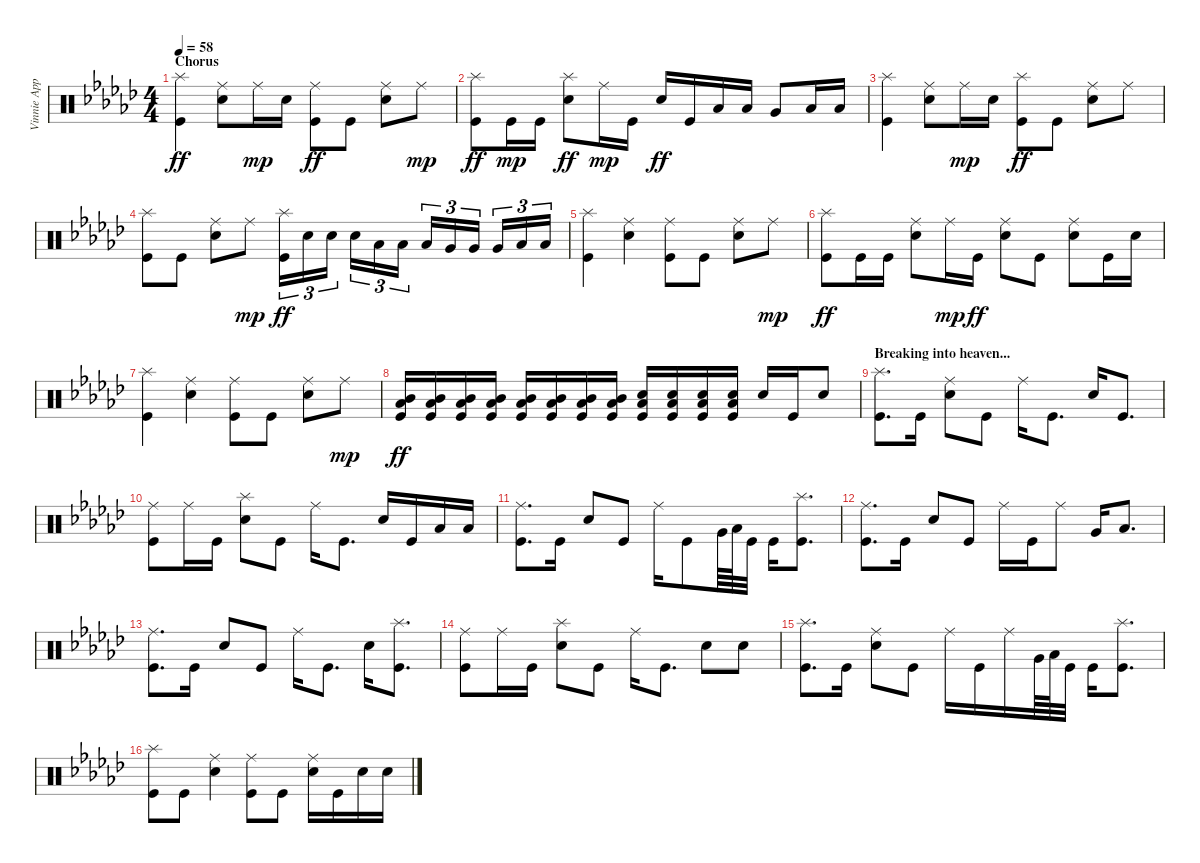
\track ("Vinnie Appice" "Vinnie App") {instrument percussion}
\staff {score}
\articulation defaults
\ts (4 4)
\section ("" "Chorus")
\tempo 58
\clef neutral
\ks ebminor
("Kick (hit)" "Splash (hit)").4{dy ff} ("Ride (middle)" "Snare (hit) 2").8 "Ride (middle)".16{dy mp} "Snare (hit) 2".16 ("Kick (hit)" "Ride (middle)").8{dy ff} "Kick (hit)".8 ("Ride (middle)" "Snare (hit) 2").8 "Ride (middle)".8{dy mp} |
("Kick (hit)" "Splash (hit)").8{dy ff} "Kick (hit)".16{dy mp} "Kick (hit)".16 ("Splash (hit)" "Snare (hit) 2").8{dy ff} "Ride (middle)".16{dy mp} "Kick (hit)".16 "Snare (hit) 2".16{dy ff} "Kick (hit)".16 "Low Tom (hit)".16 "Low Tom (hit)".16 "Very Low Tom (hit)".8 "Low Floor Tom (hit)".16 "Low Floor Tom (hit)".16 |
("Kick (hit)" "Splash (hit)").4 ("Ride (middle)" "Snare (hit) 2").8 "Ride (middle)".16{dy mp} "Snare (hit) 2".16 ("Kick (hit)" "Splash (hit)").8{dy ff} "Kick (hit)".8 ("Ride (middle)" "Snare (hit) 2").8 "Ride (middle)".8 |
("Kick (hit)" "Splash (hit)").8 "Kick (hit)".8 ("Ride (middle)" "Snare (hit) 2").8 "Ride (middle)".8{dy mp} ("Kick (hit)" "Splash (hit)").16{tu (3 2) dy ff} "Snare (hit) 2".16{tu (3 2)} "Snare (hit) 2".16{tu (3 2)} "Snare (hit) 2".16{tu (3 2)} "Low Tom (hit)".16{tu (3 2)} "Low Tom (hit)".16{tu (3 2)} "Low Tom (hit)".16{tu (3 2)} "Very Low Tom (hit)".16{tu (3 2)} "Very Low Tom (hit)".16{tu (3 2)} "Very Low Tom (hit)".16{tu (3 2)} "Low Floor Tom (hit)".16{tu (3 2)} "Low Floor Tom (hit)".16{tu (3 2)} |
("Kick (hit)" "Splash (hit)").4 ("Snare (hit) 2" "Ride (middle)").4 ("Ride (middle)" "Kick (hit)").8 "Kick (hit)".8 ("Ride (middle)" "Snare (hit) 2").8 "Ride (middle)".8{dy mp} |
("Splash (hit)" "Kick (hit)").8{dy ff} "Kick (hit)".16 "Kick (hit)".16 ("Ride (middle)" "Snare (hit) 2").8 "Ride (middle)".16{dy mp} "Kick (hit)".16{dy ff} ("Snare (hit) 2" "Ride (middle)").8 "Kick (hit)".8 ("Ride (middle)" "Snare (hit) 2").8 "Kick (hit)".16 "Snare (hit) 2".16 |
("Kick (hit)" "Splash (hit)").4 ("Snare (hit) 2" "Ride (middle)").4 ("Ride (middle)" "Kick (hit)").8 "Kick (hit)".8 ("Ride (middle)" "Snare (hit) 2").8 "Ride (middle)".8{dy mp} |
("Kick (hit)" "Low Floor Tom (hit)" "Mid Tom (hit)").16{dy ff} ("Kick (hit)" "Low Floor Tom (hit)" "Mid Tom (hit)").16 ("Kick (hit)" "Low Floor Tom (hit)" "Mid Tom (hit)").16 ("Kick (hit)" "Low Floor Tom (hit)" "Mid Tom (hit)").16 ("Kick (hit)" "Low Floor Tom (hit)" "Mid Tom (hit)").16 ("Kick (hit)" "Low Floor Tom (hit)" "Mid Tom (hit)").16 ("Kick (hit)" "Low Floor Tom (hit)" "Mid Tom (hit)").16 ("Kick (hit)" "Low Floor Tom (hit)" "Mid Tom (hit)").16 ("Kick (hit)" "Low Floor Tom (hit)" "Snare (hit) 2").16 ("Kick (hit)" "Low Floor Tom (hit)" "Snare (hit) 2").16 ("Kick (hit)" "Low Floor Tom (hit)" "Snare (hit) 2").16 ("Kick (hit)" "Low Floor Tom (hit)" "Snare (hit) 2").16 "Snare (hit) 2".16 "Kick (hit)".16 "Snare (hit) 2".8 |
\section ("" "Breaking into heaven...")
("Kick (hit)" "Splash (hit)").8{d} "Kick (hit)".16 ("Ride (middle)" "Snare (hit) 2").8 "Kick (hit)".8 "Ride (middle)".16 "Kick (hit)".8{d} "Snare (hit) 2".16 "Kick (hit)".8{d} |
("Kick (hit)" "Ride (middle)").8 "Ride (middle)".16 "Kick (hit)".16 ("Snare (hit) 2" "Splash (hit)").8 "Kick (hit)".8 "Ride (middle)".16 "Kick (hit)".8{d} "Snare (hit) 2".16 "Kick (hit)".16 "Low Tom (hit)".16 "Low Tom (hit)".16 |
("Kick (hit)" "Ride (middle)").8{d} "Kick (hit)".16 "Snare (hit) 2".8 "Kick (hit)".8 "Ride (middle)".16 "Kick (hit)".8 "Very Low Tom (hit)".64 "Low Floor Tom (hit)".64 "Kick (hit)".32 "Kick (hit)".16 ("Kick (hit)" "Splash (hit)").8{d} |
("Kick (hit)" "Ride (middle)").8{d} "Kick (hit)".16 "Snare (hit) 2".8 "Kick (hit)".8 "Ride (middle)".16 "Kick (hit)".16 "Ride (middle)".8 "Very Low Tom (hit)".16 "Low Floor Tom (hit)".8{d} |
("Kick (hit)" "Ride (middle)").8{d} "Kick (hit)".16 "Snare (hit) 2".8 "Kick (hit)".8 "Ride (middle)".16 "Kick (hit)".8{d} "Snare (hit) 2".16 ("Kick (hit)" "Splash (hit)").8{d} |
("Kick (hit)" "Ride (middle)").8 "Ride (middle)".16 "Kick (hit)".16 ("Snare (hit) 2" "Splash (hit)").8 "Kick (hit)".8 "Ride (middle)".16 "Kick (hit)".8{d} "Snare (hit) 2".8 "Snare (hit) 2".8 |
("Kick (hit)" "Splash (hit)").8{d} "Kick (hit)".16 ("Snare (hit) 2" "Ride (middle)").8 "Kick (hit)".8 "Ride (middle)".16 "Kick (hit)".16 "Ride (middle)".16 "Very Low Tom (hit)".64 "Low Floor Tom (hit)".64 "Kick (hit)".32 "Kick (hit)".16 ("Kick (hit)" "Splash (hit)").8{d} |
("Kick (hit)" "Splash (hit)").8 "Kick (hit)".8 ("Ride (middle)" "Snare (hit) 2").4 ("Kick (hit)" "Ride (middle)").8 "Kick (hit)".8 ("Snare (hit) 2" "Ride (middle)").16 "Kick (hit)".16 "Snare (hit) 2".16 "Snare (hit) 2".16
